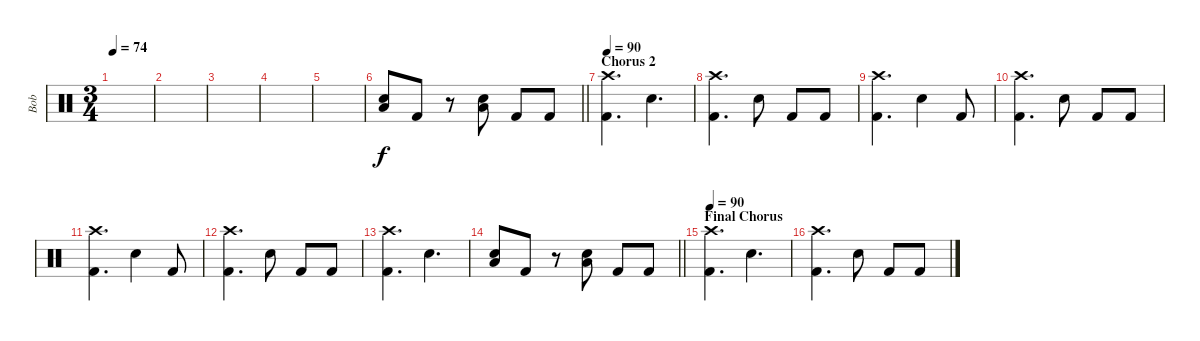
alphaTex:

\track ("Bob" "Bob") {instrument percussion}
\staff {score}
\articulation defaults
\ts (3 4)
\tempo 74
\clef neutral
\ks c
|
|
|
|
|
\barLineRight lightlight
("Electric Snare (hit)" "Low Floor Tom (hit)").8 "Kick (hit) 2".8 r.8 ("Electric Snare (hit)" "Low Floor Tom (hit)").8 "Kick (hit) 2".8 "Kick (hit) 2".8 |
\section ("" "Chorus 2")
\tempo 90
("Crash high (hit)" "Kick (hit) 2").4{d} "Electric Snare (hit)".4{d} |
("Crash high (hit)" "Kick (hit) 2").4{d} "Electric Snare (hit)".8 "Kick (hit) 2".8 "Kick (hit) 2".8 |
("Crash high (hit)" "Kick (hit) 2").4{d} "Electric Snare (hit)".4 "Kick (hit) 2".8 |
("Crash high (hit)" "Kick (hit) 2").4{d} "Electric Snare (hit)".8 "Kick (hit) 2".8 "Kick (hit) 2".8 |
("Crash high (hit)" "Kick (hit) 2").4{d} "Electric Snare (hit)".4 "Kick (hit) 2".8 |
("Crash high (hit)" "Kick (hit) 2").4{d} "Electric Snare (hit)".8 "Kick (hit) 2".8 "Kick (hit) 2".8 |
("Crash high (hit)" "Kick (hit) 2").4{d} "Electric Snare (hit)".4{d} |
\barLineRight lightlight
("Electric Snare (hit)" "Low Floor Tom (hit)").8 "Kick (hit) 2".8 r.8 ("Electric Snare (hit)" "Low Floor Tom (hit)").8 "Kick (hit) 2".8 "Kick (hit) 2".8 |
\section ("" "Final Chorus")
\tempo 90
("Crash high (hit)" "Kick (hit) 2").4{d} "Electric Snare (hit)".4{d} |
("Crash high (hit)" "Kick (hit) 2").4{d} "Electric Snare (hit)".8 "Kick (hit) 2".8 "Kick (hit) 2".8
